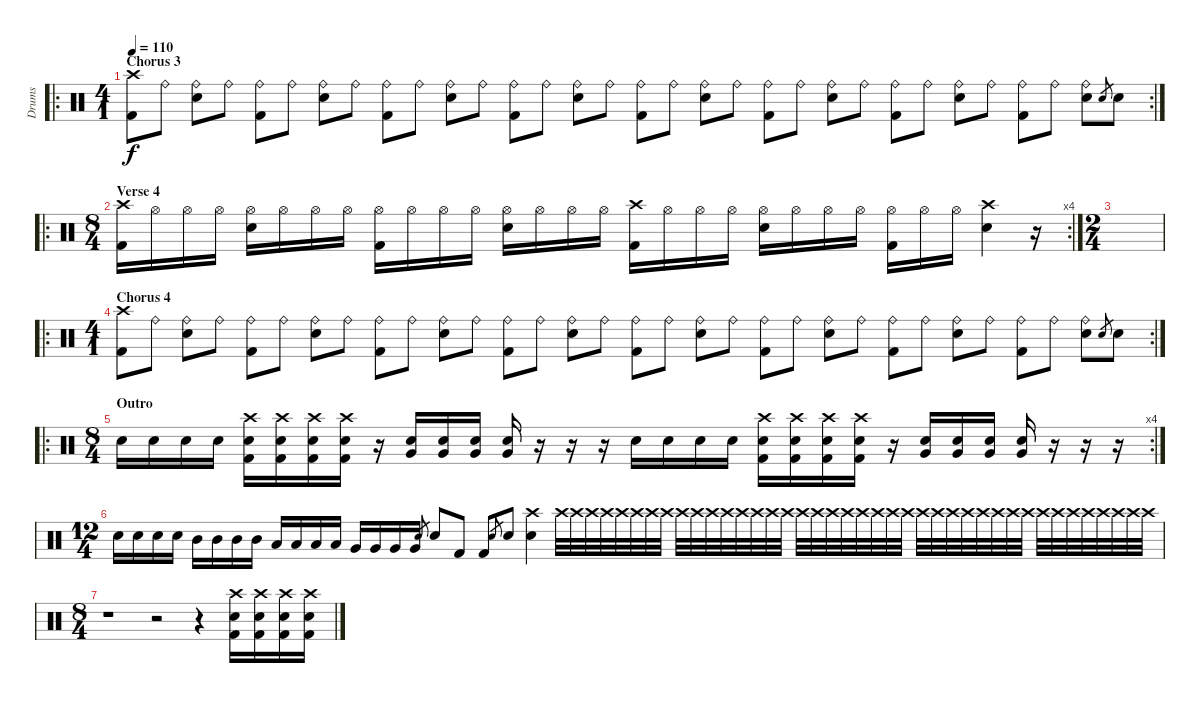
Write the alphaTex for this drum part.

\track ("Drums" "Drums") {instrument percussion}
\staff {score}
\articulation defaults
\ro
\rc 2
\ts (4 1)
\section ("" "Chorus 3")
\tempo 110
\clef neutral
\ks c
("Crash high (hit)" "Kick (hit) 2").8{dy f} "Ride (bell)".8 ("Ride (bell)" "Electric Snare (hit)").8 "Ride (bell)".8 ("Ride (bell)" "Kick (hit) 2").8 "Ride (bell)".8 ("Ride (bell)" "Electric Snare (hit)").8 "Ride (bell)".8 ("Ride (bell)" "Kick (hit) 2").8 "Ride (bell)".8 ("Ride (bell)" "Electric Snare (hit)").8 "Ride (bell)".8 ("Ride (bell)" "Kick (hit) 2").8 "Ride (bell)".8 ("Ride (bell)" "Electric Snare (hit)").8 "Ride (bell)".8 ("Ride (bell)" "Kick (hit) 2").8 "Ride (bell)".8 ("Ride (bell)" "Electric Snare (hit)").8 "Ride (bell)".8 ("Ride (bell)" "Kick (hit) 2").8 "Ride (bell)".8 ("Ride (bell)" "Electric Snare (hit)").8 "Ride (bell)".8 ("Ride (bell)" "Kick (hit) 2").8 "Ride (bell)".8 ("Ride (bell)" "Electric Snare (hit)").8 "Ride (bell)".8 ("Ride (bell)" "Kick (hit) 2").8 "Ride (bell)".8 ("Ride (bell)" "Electric Snare (hit)").8 "Electric Snare (hit)".8{gr} "Electric Snare (hit)".8 |
\ro
\rc 4
\ts (8 4)
\section ("" "Verse 4")
("Crash high (hit)" "Kick (hit) 2").16 "Hi-Hat (open)".16 "Hi-Hat (open)".16 "Hi-Hat (open)".16 ("Hi-Hat (open)" "Electric Snare (hit)").16 "Hi-Hat (open)".16 "Hi-Hat (open)".16 "Hi-Hat (open)".16 ("Hi-Hat (open)" "Kick (hit) 2").16 "Hi-Hat (open)".16 "Hi-Hat (open)".16 "Hi-Hat (open)".16 ("Hi-Hat (open)" "Electric Snare (hit)").16 "Hi-Hat (open)".16 "Hi-Hat (open)".16 "Hi-Hat (open)".16 ("Crash high (hit)" "Kick (hit) 2").16 "Hi-Hat (open)".16 "Hi-Hat (open)".16 "Hi-Hat (open)".16 ("Hi-Hat (open)" "Electric Snare (hit)").16 "Hi-Hat (open)".16 "Hi-Hat (open)".16 "Hi-Hat (open)".16 ("Hi-Hat (open)" "Kick (hit) 2").16 "Hi-Hat (open)".16 "Hi-Hat (open)".16 ("Crash high (hit)" "Electric Snare (hit)").4 r.16 |
\ts (2 4)
|
\ro
\rc 2
\ts (4 1)
\section ("" "Chorus 4")
("Crash high (hit)" "Kick (hit) 2").8 "Ride (bell)".8 ("Ride (bell)" "Electric Snare (hit)").8 "Ride (bell)".8 ("Ride (bell)" "Kick (hit) 2").8 "Ride (bell)".8 ("Ride (bell)" "Electric Snare (hit)").8 "Ride (bell)".8 ("Ride (bell)" "Kick (hit) 2").8 "Ride (bell)".8 ("Ride (bell)" "Electric Snare (hit)").8 "Ride (bell)".8 ("Ride (bell)" "Kick (hit) 2").8 "Ride (bell)".8 ("Ride (bell)" "Electric Snare (hit)").8 "Ride (bell)".8 ("Ride (bell)" "Kick (hit) 2").8 "Ride (bell)".8 ("Ride (bell)" "Electric Snare (hit)").8 "Ride (bell)".8 ("Ride (bell)" "Kick (hit) 2").8 "Ride (bell)".8 ("Ride (bell)" "Electric Snare (hit)").8 "Ride (bell)".8 ("Ride (bell)" "Kick (hit) 2").8 "Ride (bell)".8 ("Ride (bell)" "Electric Snare (hit)").8 "Ride (bell)".8 ("Ride (bell)" "Kick (hit) 2").8 "Ride (bell)".8 ("Ride (bell)" "Electric Snare (hit)").8 "Electric Snare (hit)".8{gr} "Electric Snare (hit)".8 |
\ro
\rc 4
\ts (8 4)
\section ("" "Outro")
"Electric Snare (hit)".16 "Electric Snare (hit)".16 "Electric Snare (hit)".16 "Electric Snare (hit)".16 ("Crash high (hit)" "Electric Snare (hit)" "Kick (hit) 2").16 ("Crash high (hit)" "Electric Snare (hit)" "Kick (hit) 2").16 ("Crash high (hit)" "Electric Snare (hit)" "Kick (hit) 2").16 ("Crash high (hit)" "Electric Snare (hit)" "Kick (hit) 2").16 r.16 ("Electric Snare (hit)" "Very Low Tom (hit)").16 ("Electric Snare (hit)" "Very Low Tom (hit)").16 ("Electric Snare (hit)" "Very Low Tom (hit)").16 ("Electric Snare (hit)" "Very Low Tom (hit)").16 r.16 r.16 r.16 "Electric Snare (hit)".16 "Electric Snare (hit)".16 "Electric Snare (hit)".16 "Electric Snare (hit)".16 ("Crash high (hit)" "Electric Snare (hit)" "Kick (hit) 2").16 ("Crash high (hit)" "Electric Snare (hit)" "Kick (hit) 2").16 ("Crash high (hit)" "Electric Snare (hit)" "Kick (hit) 2").16 ("Crash high (hit)" "Electric Snare (hit)" "Kick (hit) 2").16 r.16 ("Electric Snare (hit)" "Very Low Tom (hit)").16 ("Electric Snare (hit)" "Very Low Tom (hit)").16 ("Electric Snare (hit)" "Very Low Tom (hit)").16 ("Electric Snare (hit)" "Very Low Tom (hit)").16 r.16 r.16 r.16 |
\ts (12 4)
"Electric Snare (hit)".16 "Electric Snare (hit)".16 "Electric Snare (hit)".16 "Electric Snare (hit)".16 "Mid Tom (hit)".16 "Mid Tom (hit)".16 "Mid Tom (hit)".16 "Mid Tom (hit)".16 "Low Tom (hit)".16 "Low Tom (hit)".16 "Low Tom (hit)".16 "Low Tom (hit)".16 "Very Low Tom (hit)".16 "Very Low Tom (hit)".16 "Very Low Tom (hit)".16 "Very Low Tom (hit)".16 "Electric Snare (hit)".8{gr} "Electric Snare (hit)".8 "Kick (hit) 2".8 "Kick (hit) 2".8 "Electric Snare (hit)".8{gr} "Electric Snare (hit)".8 ("Crash high (hit)" "Electric Snare (hit)").4 "Crash high (hit)".32 "Crash high (hit)".32 "Crash high (hit)".32 "Crash high (hit)".32 "Crash high (hit)".32 "Crash high (hit)".32 "Crash high (hit)".32 "Crash high (hit)".32 "Crash high (hit)".32 "Crash high (hit)".32 "Crash high (hit)".32 "Crash high (hit)".32 "Crash high (hit)".32 "Crash high (hit)".32 "Crash high (hit)".32 "Crash high (hit)".32 "Crash high (hit)".32 "Crash high (hit)".32 "Crash high (hit)".32 "Crash high (hit)".32 "Crash high (hit)".32 "Crash high (hit)".32 "Crash high (hit)".32 "Crash high (hit)".32 "Crash high (hit)".32 "Crash high (hit)".32 "Crash high (hit)".32 "Crash high (hit)".32 "Crash high (hit)".32 "Crash high (hit)".32 "Crash high (hit)".32 "Crash high (hit)".32 "Crash high (hit)".32 "Crash high (hit)".32 "Crash high (hit)".32 "Crash high (hit)".32 "Crash high (hit)".32 "Crash high (hit)".32 "Crash high (hit)".32 "Crash high (hit)".32 |
\ts (8 4)
r.1 r.2 r.4 ("Crash high (hit)" "Electric Snare (hit)" "Kick (hit) 2").16 ("Crash high (hit)" "Electric Snare (hit)" "Kick (hit) 2").16 ("Crash high (hit)" "Electric Snare (hit)" "Kick (hit) 2").16 ("Crash high (hit)" "Electric Snare (hit)" "Kick (hit) 2").16
